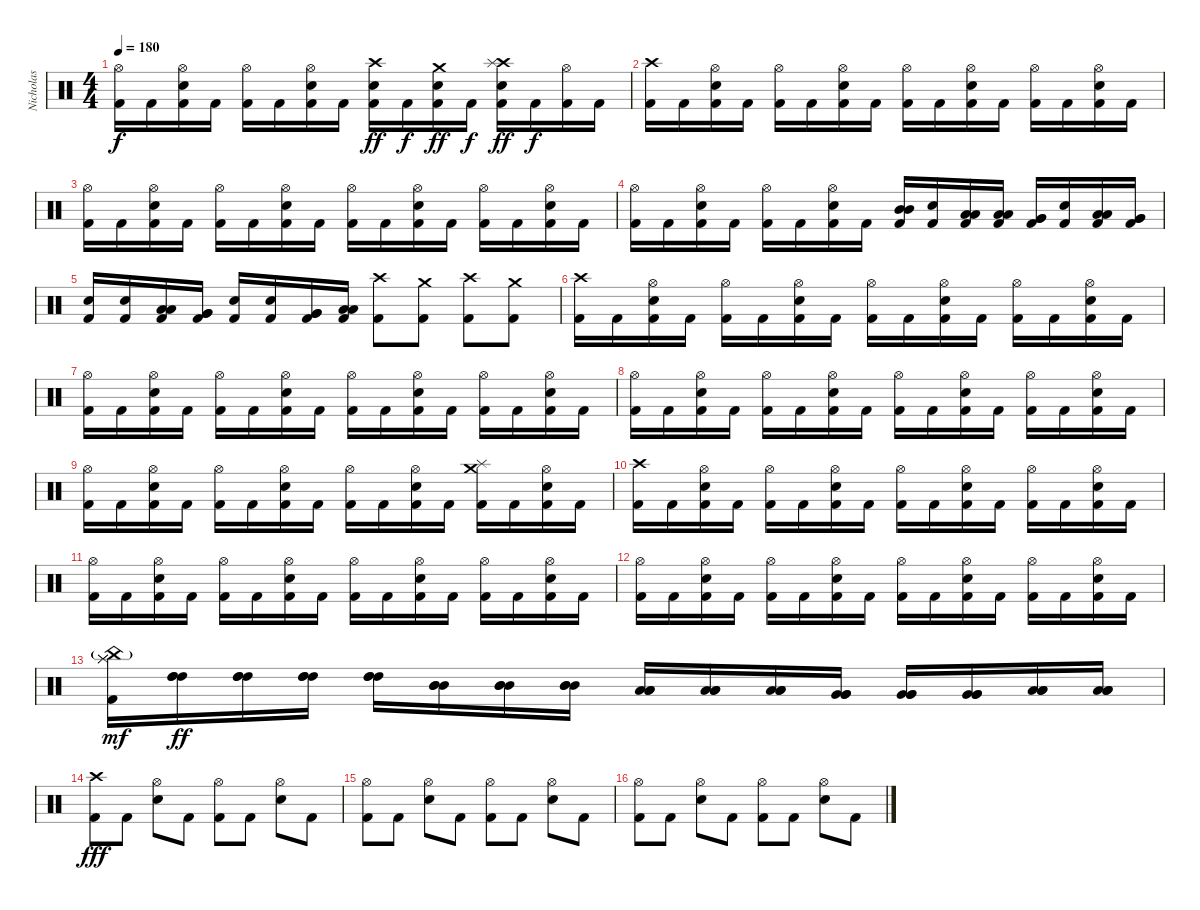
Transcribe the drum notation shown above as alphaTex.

\track ("Nicholas" "Nicholas") {instrument percussion}
\staff {score}
\articulation defaults
\ts (4 4)
\tempo 180
\clef neutral
\ks c
("Kick (hit) 2" "Hi-Hat (open)").16{dy f} "Kick (hit) 2".16 ("Kick (hit) 2" "Electric Snare (hit)" "Hi-Hat (open)").16 "Kick (hit) 2".16 ("Kick (hit) 2" "Hi-Hat (open)").16 "Kick (hit) 2".16 ("Kick (hit) 2" "Electric Snare (hit)" "Hi-Hat (open)").16 "Kick (hit) 2".16 ("Kick (hit) 2" "Electric Snare (hit)" "Crash high (hit)").16{dy ff} "Kick (hit) 2".16{dy f} ("Kick (hit) 2" "Electric Snare (hit)" "Crash medium (hit)").16{dy ff} "Kick (hit) 2".16{dy f} ("Kick (hit) 2" "Electric Snare (hit)" "Crash high (hit)" "Splash (hit)").16{dy ff} "Kick (hit) 2".16{dy f} ("Kick (hit) 2" "Hi-Hat (open)").16 "Kick (hit) 2".16 |
("Kick (hit) 2" "Crash high (hit)").16 "Kick (hit) 2".16 ("Kick (hit) 2" "Electric Snare (hit)" "Hi-Hat (open)").16 "Kick (hit) 2".16 ("Kick (hit) 2" "Hi-Hat (open)").16 "Kick (hit) 2".16 ("Kick (hit) 2" "Electric Snare (hit)" "Hi-Hat (open)").16 "Kick (hit) 2".16 ("Kick (hit) 2" "Hi-Hat (open)").16 "Kick (hit) 2".16 ("Kick (hit) 2" "Electric Snare (hit)" "Hi-Hat (open)").16 "Kick (hit) 2".16 ("Kick (hit) 2" "Hi-Hat (open)").16 "Kick (hit) 2".16 ("Kick (hit) 2" "Electric Snare (hit)" "Hi-Hat (open)").16 "Kick (hit) 2".16 |
("Kick (hit) 2" "Hi-Hat (open)").16 "Kick (hit) 2".16 ("Kick (hit) 2" "Electric Snare (hit)" "Hi-Hat (open)").16 "Kick (hit) 2".16 ("Kick (hit) 2" "Hi-Hat (open)").16 "Kick (hit) 2".16 ("Kick (hit) 2" "Electric Snare (hit)" "Hi-Hat (open)").16 "Kick (hit) 2".16 ("Kick (hit) 2" "Hi-Hat (open)").16 "Kick (hit) 2".16 ("Kick (hit) 2" "Electric Snare (hit)" "Hi-Hat (open)").16 "Kick (hit) 2".16 ("Kick (hit) 2" "Hi-Hat (open)").16 "Kick (hit) 2".16 ("Kick (hit) 2" "Electric Snare (hit)" "Hi-Hat (open)").16 "Kick (hit) 2".16 |
("Kick (hit) 2" "Hi-Hat (open)").16 "Kick (hit) 2".16 ("Kick (hit) 2" "Electric Snare (hit)" "Hi-Hat (open)").16 "Kick (hit) 2".16 ("Kick (hit) 2" "Hi-Hat (open)").16 "Kick (hit) 2".16 ("Kick (hit) 2" "Electric Snare (hit)" "Hi-Hat (open)").16 "Kick (hit) 2".16 ("Kick (hit) 2" "Mid Tom (hit)" "Mid Tom (hit)").16 ("Kick (hit) 2" "Electric Snare (hit)").16 ("Kick (hit) 2" "Low Tom (hit)" "Low Tom (hit)").16 ("Kick (hit) 2" "Low Tom (hit)" "Low Tom (hit)").16 ("Kick (hit) 2" "Very Low Tom (hit)" "Very Low Tom (hit)").16 ("Kick (hit) 2" "Electric Snare (hit)").16 ("Kick (hit) 2" "Low Tom (hit)" "Low Tom (hit)").16 ("Kick (hit) 2" "Very Low Tom (hit)" "Very Low Tom (hit)").16 |
("Kick (hit) 2" "Electric Snare (hit)").16 ("Kick (hit) 2" "Electric Snare (hit)").16 ("Kick (hit) 2" "Low Tom (hit)" "Low Tom (hit)").16 ("Kick (hit) 2" "Very Low Tom (hit)" "Very Low Tom (hit)").16 ("Kick (hit) 2" "Electric Snare (hit)").16 ("Kick (hit) 2" "Electric Snare (hit)").16 ("Kick (hit) 2" "Very Low Tom (hit)" "Very Low Tom (hit)").16 ("Kick (hit) 2" "Low Floor Tom (hit)" "Low Floor Tom (hit)").16 ("Kick (hit) 2" "Crash high (hit)").8 ("Kick (hit) 2" "Crash medium (hit)").8 ("Kick (hit) 2" "Crash high (hit)").8 ("Kick (hit) 2" "Crash medium (hit)").8 |
("Kick (hit) 2" "Crash high (hit)").16 "Kick (hit) 2".16 ("Kick (hit) 2" "Electric Snare (hit)" "Hi-Hat (open)").16 "Kick (hit) 2".16 ("Kick (hit) 2" "Hi-Hat (open)").16 "Kick (hit) 2".16 ("Kick (hit) 2" "Electric Snare (hit)" "Hi-Hat (open)").16 "Kick (hit) 2".16 ("Kick (hit) 2" "Hi-Hat (open)").16 "Kick (hit) 2".16 ("Kick (hit) 2" "Electric Snare (hit)" "Hi-Hat (open)").16 "Kick (hit) 2".16 ("Kick (hit) 2" "Hi-Hat (open)").16 "Kick (hit) 2".16 ("Kick (hit) 2" "Electric Snare (hit)" "Hi-Hat (open)").16 "Kick (hit) 2".16 |
("Kick (hit) 2" "Hi-Hat (open)").16 "Kick (hit) 2".16 ("Kick (hit) 2" "Electric Snare (hit)" "Hi-Hat (open)").16 "Kick (hit) 2".16 ("Kick (hit) 2" "Hi-Hat (open)").16 "Kick (hit) 2".16 ("Kick (hit) 2" "Electric Snare (hit)" "Hi-Hat (open)").16 "Kick (hit) 2".16 ("Kick (hit) 2" "Hi-Hat (open)").16 "Kick (hit) 2".16 ("Kick (hit) 2" "Electric Snare (hit)" "Hi-Hat (open)").16 "Kick (hit) 2".16 ("Kick (hit) 2" "Hi-Hat (open)").16 "Kick (hit) 2".16 ("Kick (hit) 2" "Electric Snare (hit)" "Hi-Hat (open)").16 "Kick (hit) 2".16 |
("Kick (hit) 2" "Hi-Hat (open)").16 "Kick (hit) 2".16 ("Kick (hit) 2" "Electric Snare (hit)" "Hi-Hat (open)").16 "Kick (hit) 2".16 ("Kick (hit) 2" "Hi-Hat (open)").16 "Kick (hit) 2".16 ("Kick (hit) 2" "Electric Snare (hit)" "Hi-Hat (open)").16 "Kick (hit) 2".16 ("Kick (hit) 2" "Hi-Hat (open)").16 "Kick (hit) 2".16 ("Kick (hit) 2" "Electric Snare (hit)" "Hi-Hat (open)").16 "Kick (hit) 2".16 ("Kick (hit) 2" "Hi-Hat (open)").16 "Kick (hit) 2".16 ("Kick (hit) 2" "Electric Snare (hit)" "Hi-Hat (open)").16 "Kick (hit) 2".16 |
("Kick (hit) 2" "Hi-Hat (open)").16 "Kick (hit) 2".16 ("Kick (hit) 2" "Electric Snare (hit)" "Hi-Hat (open)").16 "Kick (hit) 2".16 ("Kick (hit) 2" "Hi-Hat (open)").16 "Kick (hit) 2".16 ("Kick (hit) 2" "Electric Snare (hit)" "Hi-Hat (open)").16 "Kick (hit) 2".16 ("Kick (hit) 2" "Hi-Hat (open)").16 "Kick (hit) 2".16 ("Kick (hit) 2" "Electric Snare (hit)" "Hi-Hat (open)").16 "Kick (hit) 2".16 ("Kick (hit) 2" "Crash medium (hit)" "Splash (hit)").16 "Kick (hit) 2".16 ("Kick (hit) 2" "Electric Snare (hit)" "Hi-Hat (open)").16 "Kick (hit) 2".16 |
("Kick (hit) 2" "Crash high (hit)").16 "Kick (hit) 2".16 ("Kick (hit) 2" "Electric Snare (hit)" "Hi-Hat (open)").16 "Kick (hit) 2".16 ("Kick (hit) 2" "Hi-Hat (open)").16 "Kick (hit) 2".16 ("Kick (hit) 2" "Electric Snare (hit)" "Hi-Hat (open)").16 "Kick (hit) 2".16 ("Kick (hit) 2" "Hi-Hat (open)").16 "Kick (hit) 2".16 ("Kick (hit) 2" "Electric Snare (hit)" "Hi-Hat (open)").16 "Kick (hit) 2".16 ("Kick (hit) 2" "Hi-Hat (open)").16 "Kick (hit) 2".16 ("Kick (hit) 2" "Electric Snare (hit)" "Hi-Hat (open)").16 "Kick (hit) 2".16 |
("Kick (hit) 2" "Hi-Hat (open)").16 "Kick (hit) 2".16 ("Kick (hit) 2" "Electric Snare (hit)" "Hi-Hat (open)").16 "Kick (hit) 2".16 ("Kick (hit) 2" "Hi-Hat (open)").16 "Kick (hit) 2".16 ("Kick (hit) 2" "Electric Snare (hit)" "Hi-Hat (open)").16 "Kick (hit) 2".16 ("Kick (hit) 2" "Hi-Hat (open)").16 "Kick (hit) 2".16 ("Kick (hit) 2" "Electric Snare (hit)" "Hi-Hat (open)").16 "Kick (hit) 2".16 ("Kick (hit) 2" "Hi-Hat (open)").16 "Kick (hit) 2".16 ("Kick (hit) 2" "Electric Snare (hit)" "Hi-Hat (open)").16 "Kick (hit) 2".16 |
("Kick (hit) 2" "Hi-Hat (open)").16 "Kick (hit) 2".16 ("Kick (hit) 2" "Electric Snare (hit)" "Hi-Hat (open)").16 "Kick (hit) 2".16 ("Kick (hit) 2" "Hi-Hat (open)").16 "Kick (hit) 2".16 ("Kick (hit) 2" "Electric Snare (hit)" "Hi-Hat (open)").16 "Kick (hit) 2".16 ("Kick (hit) 2" "Hi-Hat (open)").16 "Kick (hit) 2".16 ("Kick (hit) 2" "Electric Snare (hit)" "Hi-Hat (open)").16 "Kick (hit) 2".16 ("Kick (hit) 2" "Hi-Hat (open)").16 "Kick (hit) 2".16 ("Kick (hit) 2" "Electric Snare (hit)" "Hi-Hat (open)").16 "Kick (hit) 2".16 |
("Kick (hit) 2" "Splash (hit)" "Splash (hit)" "China (hit)"{g}).16{dy mf volume 16} ("High Tom (hit)" "High Tom (hit)" "High Tom (hit)").16{dy ff} ("High Tom (hit)" "High Tom (hit)" "High Tom (hit)").16 ("High Tom (hit)" "High Tom (hit)" "High Tom (hit)").16 ("High Tom (hit)" "High Tom (hit)" "High Tom (hit)").16 ("Mid Tom (hit)" "Mid Tom (hit)" "Mid Tom (hit)").16 ("Mid Tom (hit)" "Mid Tom (hit)" "Mid Tom (hit)").16 ("Mid Tom (hit)" "Mid Tom (hit)" "Mid Tom (hit)").16 ("Low Tom (hit)" "Low Tom (hit)" "Low Tom (hit)").16 ("Low Tom (hit)" "Low Tom (hit)" "Low Tom (hit)").16 ("Low Tom (hit)" "Low Tom (hit)" "Low Tom (hit)").16 ("Very Low Tom (hit)" "Very Low Tom (hit)" "Very Low Tom (hit)").16 ("Very Low Tom (hit)" "Very Low Tom (hit)" "Very Low Tom (hit)").16 ("Very Low Tom (hit)" "Very Low Tom (hit)" "Very Low Tom (hit)").16 ("Low Floor Tom (hit)" "Low Floor Tom (hit)" "Low Floor Tom (hit)").16 ("Low Floor Tom (hit)" "Low Floor Tom (hit)" "Low Floor Tom (hit)").16 |
("Kick (hit) 2" "Crash high (hit)").8{dy fff volume 14} "Kick (hit) 2".8 ("Electric Snare (hit)" "Hi-Hat (open)").8 "Kick (hit) 2".8 ("Kick (hit) 2" "Hi-Hat (open)").8 "Kick (hit) 2".8 ("Electric Snare (hit)" "Hi-Hat (open)").8 "Kick (hit) 2".8 |
("Kick (hit) 2" "Hi-Hat (open)").8 "Kick (hit) 2".8 ("Electric Snare (hit)" "Hi-Hat (open)").8 "Kick (hit) 2".8 ("Kick (hit) 2" "Hi-Hat (open)").8 "Kick (hit) 2".8 ("Electric Snare (hit)" "Hi-Hat (open)").8 "Kick (hit) 2".8 |
("Kick (hit) 2" "Hi-Hat (open)").8 "Kick (hit) 2".8 ("Electric Snare (hit)" "Hi-Hat (open)").8 "Kick (hit) 2".8 ("Kick (hit) 2" "Hi-Hat (open)").8 "Kick (hit) 2".8 ("Electric Snare (hit)" "Hi-Hat (open)").8 "Kick (hit) 2".8
